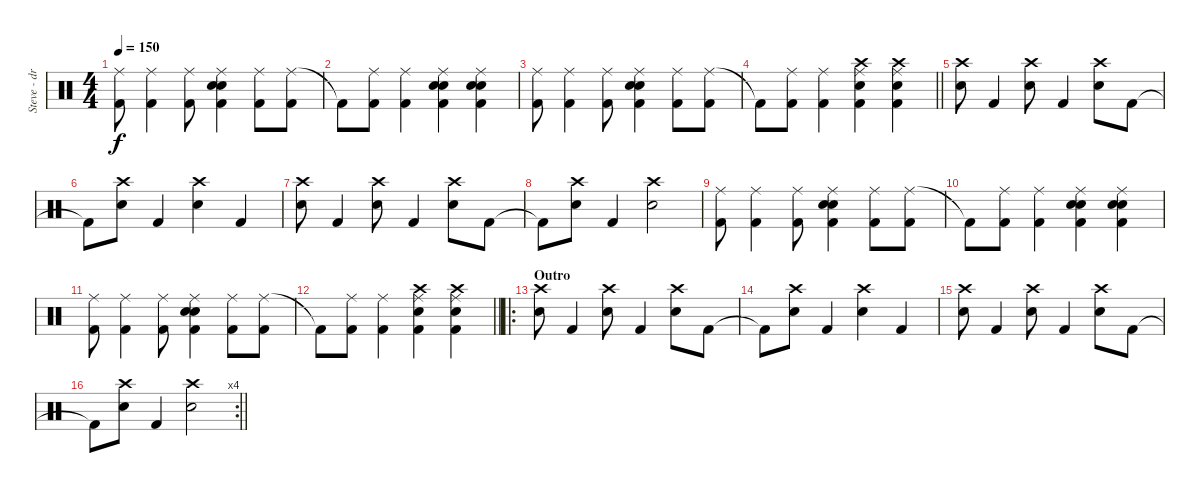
\track ("Steve - drums" "Steve - dr") {instrument percussion}
\staff {score}
\articulation defaults
\ts (4 4)
\tempo 150
\clef neutral
\ks c
("Ride (middle)" "Kick (hit) 2").8{dy f} ("Ride (middle)" "Kick (hit) 2").4 ("Ride (middle)" "Kick (hit) 2").8 ("Electric Snare (hit)" "Ride (middle)" "Kick (hit) 2" "Snare (hit) 2").4 ("Ride (middle)" "Kick (hit) 2").8 ("Ride (middle)" "Kick (hit) 2").8 |
"Kick (hit) 2"{t}.8 ("Ride (middle)" "Kick (hit) 2").8 ("Ride (middle)" "Kick (hit) 2").4 ("Electric Snare (hit)" "Ride (middle)" "Kick (hit) 2" "Snare (hit) 2").4 ("Electric Snare (hit)" "Ride (middle)" "Kick (hit) 2" "Snare (hit) 2").4 |
("Ride (middle)" "Kick (hit) 2").8 ("Ride (middle)" "Kick (hit) 2").4 ("Ride (middle)" "Kick (hit) 2").8 ("Electric Snare (hit)" "Ride (middle)" "Kick (hit) 2" "Snare (hit) 2").4 ("Ride (middle)" "Kick (hit) 2").8 ("Ride (middle)" "Kick (hit) 2").8 |
\barLineRight lightlight "Kick (hit) 2"{t}.8
("Ride (middle)" "Kick (hit) 2").8 ("Ride (middle)" "Kick (hit) 2").4 ("Crash high (hit)" "Ride (middle)" "Kick (hit) 2" "Snare (hit) 2").4 ("Crash high (hit)" "Ride (middle)" "Kick (hit) 2" "Snare (hit) 2").4 |
("Crash high (hit)" "Snare (hit) 2").8 "Kick (hit) 2".4 ("Crash high (hit)" "Snare (hit) 2").8 "Kick (hit) 2".4 ("Crash high (hit)" "Snare (hit) 2").8 "Kick (hit) 2".8 |
"Kick (hit) 2"{t}.8 ("Crash high (hit)" "Snare (hit) 2").8 "Kick (hit) 2".4 ("Crash high (hit)" "Snare (hit) 2").4 "Kick (hit) 2".4 |
("Crash high (hit)" "Snare (hit) 2").8 "Kick (hit) 2".4 ("Crash high (hit)" "Snare (hit) 2").8 "Kick (hit) 2".4 ("Crash high (hit)" "Snare (hit) 2").8 "Kick (hit) 2".8 |
"Kick (hit) 2"{t}.8 ("Crash high (hit)" "Snare (hit) 2").8 "Kick (hit) 2".4 ("Crash high (hit)" "Snare (hit) 2").2 |
("Ride (middle)" "Kick (hit) 2").8 ("Ride (middle)" "Kick (hit) 2").4 ("Ride (middle)" "Kick (hit) 2").8 ("Electric Snare (hit)" "Ride (middle)" "Kick (hit) 2" "Snare (hit) 2").4 ("Ride (middle)" "Kick (hit) 2").8 ("Ride (middle)" "Kick (hit) 2").8 |
"Kick (hit) 2"{t}.8 ("Ride (middle)" "Kick (hit) 2").8 ("Ride (middle)" "Kick (hit) 2").4 ("Electric Snare (hit)" "Ride (middle)" "Kick (hit) 2" "Snare (hit) 2").4 ("Electric Snare (hit)" "Ride (middle)" "Kick (hit) 2" "Snare (hit) 2").4 |
("Ride (middle)" "Kick (hit) 2").8 ("Ride (middle)" "Kick (hit) 2").4 ("Ride (middle)" "Kick (hit) 2").8 ("Electric Snare (hit)" "Ride (middle)" "Kick (hit) 2" "Snare (hit) 2").4 ("Ride (middle)" "Kick (hit) 2").8 ("Ride (middle)" "Kick (hit) 2").8 |
\barLineRight lightlight "Kick (hit) 2"{t}.8
("Ride (middle)" "Kick (hit) 2").8 ("Ride (middle)" "Kick (hit) 2").4 ("Crash high (hit)" "Ride (middle)" "Kick (hit) 2" "Snare (hit) 2").4 ("Crash high (hit)" "Ride (middle)" "Kick (hit) 2" "Snare (hit) 2").4 |
\ro
\section ("" "Outro")
("Crash high (hit)" "Snare (hit) 2").8 "Kick (hit) 2".4 ("Crash high (hit)" "Snare (hit) 2").8 "Kick (hit) 2".4 ("Crash high (hit)" "Snare (hit) 2").8 "Kick (hit) 2".8 |
"Kick (hit) 2"{t}.8 ("Crash high (hit)" "Snare (hit) 2").8 "Kick (hit) 2".4 ("Crash high (hit)" "Snare (hit) 2").4 "Kick (hit) 2".4 |
("Crash high (hit)" "Snare (hit) 2").8 "Kick (hit) 2".4 ("Crash high (hit)" "Snare (hit) 2").8 "Kick (hit) 2".4 ("Crash high (hit)" "Snare (hit) 2").8 "Kick (hit) 2".8 |
\rc 4
\barLineRight lightlight "Kick (hit) 2"{t}.8
("Crash high (hit)" "Snare (hit) 2").8 "Kick (hit) 2".4 ("Crash high (hit)" "Snare (hit) 2").2
